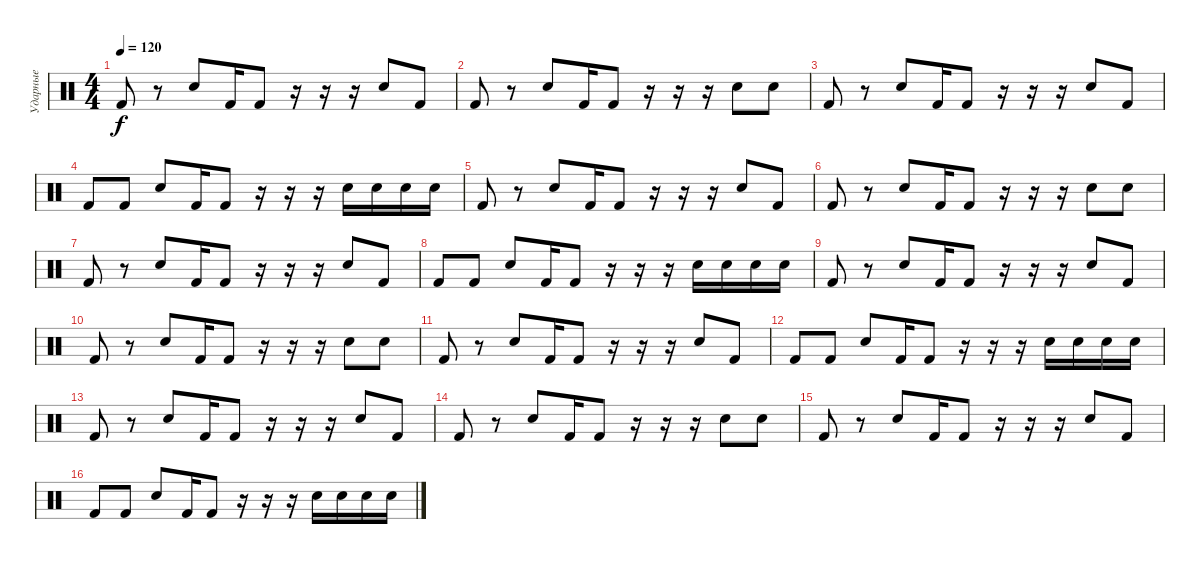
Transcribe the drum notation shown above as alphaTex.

\track ("Ударные" "Ударные") {instrument percussion}
\staff {score}
\articulation defaults
\ts (4 4)
\tempo 120
\clef neutral
\ks c "Kick (hit) 2".8{dy f}
r.8 "Electric Snare (hit)".8 "Kick (hit) 2".16 "Kick (hit) 2".8 r.16 r.16 r.16 "Electric Snare (hit)".8 "Kick (hit) 2".8 |
"Kick (hit) 2".8 r.8 "Electric Snare (hit)".8 "Kick (hit) 2".16 "Kick (hit) 2".8 r.16 r.16 r.16 "Electric Snare (hit)".8 "Electric Snare (hit)".8 |
"Kick (hit) 2".8 r.8 "Electric Snare (hit)".8 "Kick (hit) 2".16 "Kick (hit) 2".8 r.16 r.16 r.16 "Electric Snare (hit)".8 "Kick (hit) 2".8 |
"Kick (hit) 2".8 "Kick (hit) 2".8 "Electric Snare (hit)".8 "Kick (hit) 2".16 "Kick (hit) 2".8 r.16 r.16 r.16 "Electric Snare (hit)".16 "Electric Snare (hit)".16 "Electric Snare (hit)".16 "Electric Snare (hit)".16 |
"Kick (hit) 2".8 r.8 "Electric Snare (hit)".8 "Kick (hit) 2".16 "Kick (hit) 2".8 r.16 r.16 r.16 "Electric Snare (hit)".8 "Kick (hit) 2".8 |
"Kick (hit) 2".8 r.8 "Electric Snare (hit)".8 "Kick (hit) 2".16 "Kick (hit) 2".8 r.16 r.16 r.16 "Electric Snare (hit)".8 "Electric Snare (hit)".8 |
"Kick (hit) 2".8 r.8 "Electric Snare (hit)".8 "Kick (hit) 2".16 "Kick (hit) 2".8 r.16 r.16 r.16 "Electric Snare (hit)".8 "Kick (hit) 2".8 |
"Kick (hit) 2".8 "Kick (hit) 2".8 "Electric Snare (hit)".8 "Kick (hit) 2".16 "Kick (hit) 2".8 r.16 r.16 r.16 "Electric Snare (hit)".16 "Electric Snare (hit)".16 "Electric Snare (hit)".16 "Electric Snare (hit)".16 |
"Kick (hit) 2".8 r.8 "Electric Snare (hit)".8 "Kick (hit) 2".16 "Kick (hit) 2".8 r.16 r.16 r.16 "Electric Snare (hit)".8 "Kick (hit) 2".8 |
"Kick (hit) 2".8 r.8 "Electric Snare (hit)".8 "Kick (hit) 2".16 "Kick (hit) 2".8 r.16 r.16 r.16 "Electric Snare (hit)".8 "Electric Snare (hit)".8 |
"Kick (hit) 2".8 r.8 "Electric Snare (hit)".8 "Kick (hit) 2".16 "Kick (hit) 2".8 r.16 r.16 r.16 "Electric Snare (hit)".8 "Kick (hit) 2".8 |
"Kick (hit) 2".8 "Kick (hit) 2".8 "Electric Snare (hit)".8 "Kick (hit) 2".16 "Kick (hit) 2".8 r.16 r.16 r.16 "Electric Snare (hit)".16 "Electric Snare (hit)".16 "Electric Snare (hit)".16 "Electric Snare (hit)".16 |
"Kick (hit) 2".8 r.8 "Electric Snare (hit)".8 "Kick (hit) 2".16 "Kick (hit) 2".8 r.16 r.16 r.16 "Electric Snare (hit)".8 "Kick (hit) 2".8 |
"Kick (hit) 2".8 r.8 "Electric Snare (hit)".8 "Kick (hit) 2".16 "Kick (hit) 2".8 r.16 r.16 r.16 "Electric Snare (hit)".8 "Electric Snare (hit)".8 |
"Kick (hit) 2".8 r.8 "Electric Snare (hit)".8 "Kick (hit) 2".16 "Kick (hit) 2".8 r.16 r.16 r.16 "Electric Snare (hit)".8 "Kick (hit) 2".8 |
"Kick (hit) 2".8 "Kick (hit) 2".8 "Electric Snare (hit)".8 "Kick (hit) 2".16 "Kick (hit) 2".8 r.16 r.16 r.16 "Electric Snare (hit)".16 "Electric Snare (hit)".16 "Electric Snare (hit)".16 "Electric Snare (hit)".16
